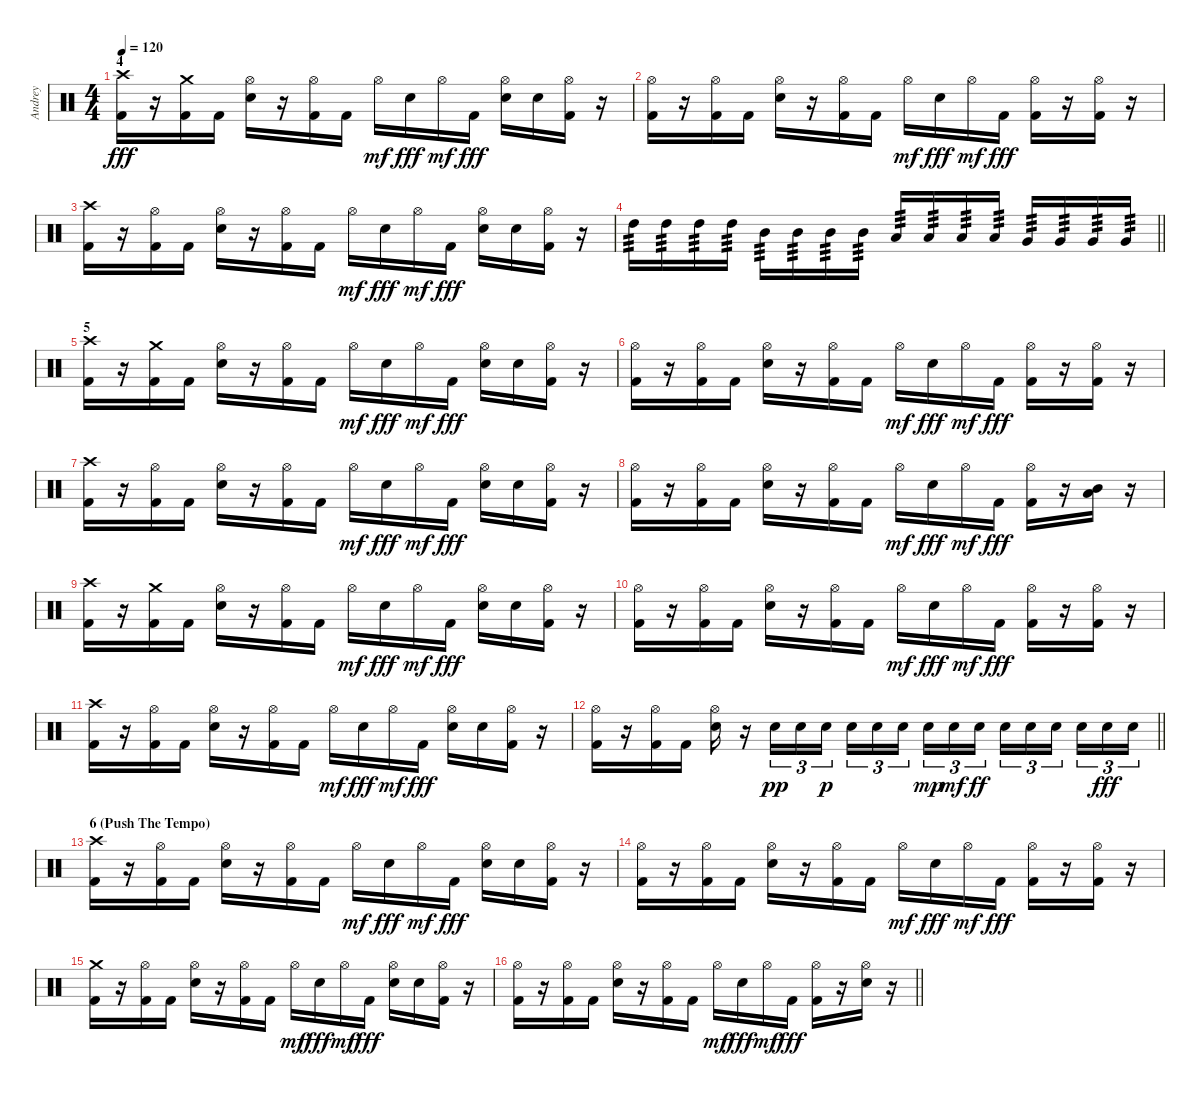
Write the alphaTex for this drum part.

\track ("Andrey" "Andrey") {instrument percussion}
\staff {score}
\articulation defaults
\ts (4 4)
\section ("" "4")
\tempo 120
\clef neutral
\ks c
("Crash high (hit)" "Kick (hit) 2").16{dy fff} r.16 ("Crash medium (hit)" "Kick (hit) 2").16 "Kick (hit) 2".16 ("Hi-Hat (open)" "Snare (hit) 2").16 r.16 ("Hi-Hat (open)" "Kick (hit) 2").16 "Kick (hit) 2".16 "Hi-Hat (open)".16{dy mf} "Snare (hit) 2".16{dy fff} "Hi-Hat (open)".16{dy mf} "Kick (hit) 2".16{dy fff} ("Hi-Hat (open)" "Snare (hit) 2").16 "Snare (hit) 2".16 ("Hi-Hat (open)" "Kick (hit) 2").16 r.16 |
("Hi-Hat (open)" "Kick (hit) 2").16 r.16 ("Hi-Hat (open)" "Kick (hit) 2").16 "Kick (hit) 2".16 ("Hi-Hat (open)" "Snare (hit) 2").16 r.16 ("Hi-Hat (open)" "Kick (hit) 2").16 "Kick (hit) 2".16 "Hi-Hat (open)".16{dy mf} "Snare (hit) 2".16{dy fff} "Hi-Hat (open)".16{dy mf} "Kick (hit) 2".16{dy fff} ("Hi-Hat (open)" "Kick (hit) 2").16 r.16 ("Hi-Hat (open)" "Kick (hit) 2").16 r.16 |
("Crash high (hit)" "Kick (hit) 2").16 r.16 ("Hi-Hat (open)" "Kick (hit) 2").16 "Kick (hit) 2".16 ("Hi-Hat (open)" "Snare (hit) 2").16 r.16 ("Hi-Hat (open)" "Kick (hit) 2").16 "Kick (hit) 2".16 "Hi-Hat (open)".16{dy mf} "Snare (hit) 2".16{dy fff} "Hi-Hat (open)".16{dy mf} "Kick (hit) 2".16{dy fff} ("Hi-Hat (open)" "Snare (hit) 2").16 "Snare (hit) 2".16 ("Hi-Hat (open)" "Kick (hit) 2").16 r.16 |
\barLineRight lightlight "High Tom (hit)".16{tp 3} "High Tom (hit)".16{tp 3} "High Tom (hit)".16{tp 3} "High Tom (hit)".16{tp 3} "Mid Tom (hit)".16{tp 3} "Mid Tom (hit)".16{tp 3} "Mid Tom (hit)".16{tp 3} "Mid Tom (hit)".16{tp 3} "Low Tom (hit)".16{tp 3} "Low Tom (hit)".16{tp 3} "Low Tom (hit)".16{tp 3} "Low Tom (hit)".16{tp 3} "Very Low Tom (hit)".16{tp 3} "Very Low Tom (hit)".16{tp 3} "Very Low Tom (hit)".16{tp 3} "Very Low Tom (hit)".16{tp 3}
|
\section ("" "5")
("Crash high (hit)" "Kick (hit) 2").16{volume 16} r.16 ("Crash medium (hit)" "Kick (hit) 2").16 "Kick (hit) 2".16 ("Hi-Hat (open)" "Snare (hit) 2").16 r.16 ("Hi-Hat (open)" "Kick (hit) 2").16 "Kick (hit) 2".16 "Hi-Hat (open)".16{dy mf} "Snare (hit) 2".16{dy fff} "Hi-Hat (open)".16{dy mf} "Kick (hit) 2".16{dy fff} ("Hi-Hat (open)" "Snare (hit) 2").16 "Snare (hit) 2".16 ("Hi-Hat (open)" "Kick (hit) 2").16 r.16 |
("Hi-Hat (open)" "Kick (hit) 2").16 r.16 ("Hi-Hat (open)" "Kick (hit) 2").16 "Kick (hit) 2".16 ("Hi-Hat (open)" "Snare (hit) 2").16 r.16 ("Hi-Hat (open)" "Kick (hit) 2").16 "Kick (hit) 2".16 "Hi-Hat (open)".16{dy mf} "Snare (hit) 2".16{dy fff} "Hi-Hat (open)".16{dy mf} "Kick (hit) 2".16{dy fff} ("Hi-Hat (open)" "Kick (hit) 2").16 r.16 ("Hi-Hat (open)" "Kick (hit) 2").16 r.16 |
("Crash high (hit)" "Kick (hit) 2").16 r.16 ("Hi-Hat (open)" "Kick (hit) 2").16 "Kick (hit) 2".16 ("Hi-Hat (open)" "Snare (hit) 2").16 r.16 ("Hi-Hat (open)" "Kick (hit) 2").16 "Kick (hit) 2".16 "Hi-Hat (open)".16{dy mf} "Snare (hit) 2".16{dy fff} "Hi-Hat (open)".16{dy mf} "Kick (hit) 2".16{dy fff} ("Hi-Hat (open)" "Snare (hit) 2").16 "Snare (hit) 2".16 ("Hi-Hat (open)" "Kick (hit) 2").16 r.16 |
("Hi-Hat (open)" "Kick (hit) 2").16 r.16 ("Hi-Hat (open)" "Kick (hit) 2").16 "Kick (hit) 2".16 ("Hi-Hat (open)" "Snare (hit) 2").16 r.16 ("Hi-Hat (open)" "Kick (hit) 2").16 "Kick (hit) 2".16 "Hi-Hat (open)".16{dy mf} "Snare (hit) 2".16{dy fff} "Hi-Hat (open)".16{dy mf} "Kick (hit) 2".16{dy fff} ("Hi-Hat (open)" "Kick (hit) 2").16 r.16 ("Low Tom (hit)" "Mid Tom (hit)").16 r.16 |
("Crash high (hit)" "Kick (hit) 2").16 r.16 ("Crash medium (hit)" "Kick (hit) 2").16 "Kick (hit) 2".16 ("Hi-Hat (open)" "Snare (hit) 2").16 r.16 ("Hi-Hat (open)" "Kick (hit) 2").16 "Kick (hit) 2".16 "Hi-Hat (open)".16{dy mf} "Snare (hit) 2".16{dy fff} "Hi-Hat (open)".16{dy mf} "Kick (hit) 2".16{dy fff} ("Hi-Hat (open)" "Snare (hit) 2").16 "Snare (hit) 2".16 ("Hi-Hat (open)" "Kick (hit) 2").16 r.16 |
("Hi-Hat (open)" "Kick (hit) 2").16 r.16 ("Hi-Hat (open)" "Kick (hit) 2").16 "Kick (hit) 2".16 ("Hi-Hat (open)" "Snare (hit) 2").16 r.16 ("Hi-Hat (open)" "Kick (hit) 2").16 "Kick (hit) 2".16 "Hi-Hat (open)".16{dy mf} "Snare (hit) 2".16{dy fff} "Hi-Hat (open)".16{dy mf} "Kick (hit) 2".16{dy fff} ("Hi-Hat (open)" "Kick (hit) 2").16 r.16 ("Hi-Hat (open)" "Kick (hit) 2").16 r.16 |
("Crash high (hit)" "Kick (hit) 2").16 r.16 ("Hi-Hat (open)" "Kick (hit) 2").16 "Kick (hit) 2".16 ("Hi-Hat (open)" "Snare (hit) 2").16 r.16 ("Hi-Hat (open)" "Kick (hit) 2").16 "Kick (hit) 2".16 "Hi-Hat (open)".16{dy mf} "Snare (hit) 2".16{dy fff} "Hi-Hat (open)".16{dy mf} "Kick (hit) 2".16{dy fff} ("Hi-Hat (open)" "Snare (hit) 2").16 "Snare (hit) 2".16 ("Hi-Hat (open)" "Kick (hit) 2").16 r.16 |
\barLineRight lightlight
("Hi-Hat (open)" "Kick (hit) 2").16 r.16 ("Hi-Hat (open)" "Kick (hit) 2").16 "Kick (hit) 2".16 ("Hi-Hat (open)" "Snare (hit) 2").16 r.16 "Snare (hit) 2".16{tu (3 2) dy pp} "Snare (hit) 2".16{tu (3 2)} "Snare (hit) 2".16{tu (3 2) dy p} "Snare (hit) 2".16{tu (3 2)} "Snare (hit) 2".16{tu (3 2)} "Snare (hit) 2".16{tu (3 2) beam splitsecondary} "Snare (hit) 2".16{tu (3 2) dy mp} "Snare (hit) 2".16{tu (3 2) dy mf} "Snare (hit) 2".16{tu (3 2) dy ff} "Snare (hit) 2".16{tu (3 2)} "Snare (hit) 2".16{tu (3 2)} "Snare (hit) 2".16{tu (3 2) beam splitsecondary} "Snare (hit) 2".16{tu (3 2)} "Snare (hit) 2".16{tu (3 2) dy fff} "Snare (hit) 2".16{tu (3 2)} |
\section ("" "6 (Push The Tempo)")
("Crash high (hit)" "Kick (hit) 2").16 r.16 ("Hi-Hat (open)" "Kick (hit) 2").16 "Kick (hit) 2".16 ("Hi-Hat (open)" "Snare (hit) 2").16 r.16 ("Hi-Hat (open)" "Kick (hit) 2").16 "Kick (hit) 2".16 "Hi-Hat (open)".16{dy mf} "Snare (hit) 2".16{dy fff} "Hi-Hat (open)".16{dy mf} "Kick (hit) 2".16{dy fff} ("Hi-Hat (open)" "Snare (hit) 2").16 "Snare (hit) 2".16 ("Hi-Hat (open)" "Kick (hit) 2").16 r.16 |
("Hi-Hat (open)" "Kick (hit) 2").16 r.16 ("Hi-Hat (open)" "Kick (hit) 2").16 "Kick (hit) 2".16 ("Hi-Hat (open)" "Snare (hit) 2").16 r.16 ("Hi-Hat (open)" "Kick (hit) 2").16 "Kick (hit) 2".16 "Hi-Hat (open)".16{dy mf} "Snare (hit) 2".16{dy fff} "Hi-Hat (open)".16{dy mf} "Kick (hit) 2".16{dy fff} ("Hi-Hat (open)" "Kick (hit) 2").16 r.16 ("Hi-Hat (open)" "Kick (hit) 2").16 r.16 |
("Crash medium (hit)" "Kick (hit) 2").16 r.16 ("Hi-Hat (open)" "Kick (hit) 2").16 "Kick (hit) 2".16 ("Hi-Hat (open)" "Snare (hit) 2").16 r.16 ("Hi-Hat (open)" "Kick (hit) 2").16 "Kick (hit) 2".16 "Hi-Hat (open)".16{dy mf} "Snare (hit) 2".16{dy fff} "Hi-Hat (open)".16{dy mf} "Kick (hit) 2".16{dy fff} ("Hi-Hat (open)" "Snare (hit) 2").16 "Snare (hit) 2".16 ("Hi-Hat (open)" "Kick (hit) 2").16 r.16 |
\barLineRight lightlight
("Hi-Hat (open)" "Kick (hit) 2").16 r.16 ("Hi-Hat (open)" "Kick (hit) 2").16 "Kick (hit) 2".16 ("Hi-Hat (open)" "Snare (hit) 2").16 r.16 ("Hi-Hat (open)" "Kick (hit) 2").16 "Kick (hit) 2".16 "Hi-Hat (open)".16{dy mf} "Snare (hit) 2".16{dy fff} "Hi-Hat (open)".16{dy mf} "Kick (hit) 2".16{dy fff} ("Hi-Hat (open)" "Kick (hit) 2").16 r.16 ("Hi-Hat (open)" "Snare (hit) 2").16 r.16
